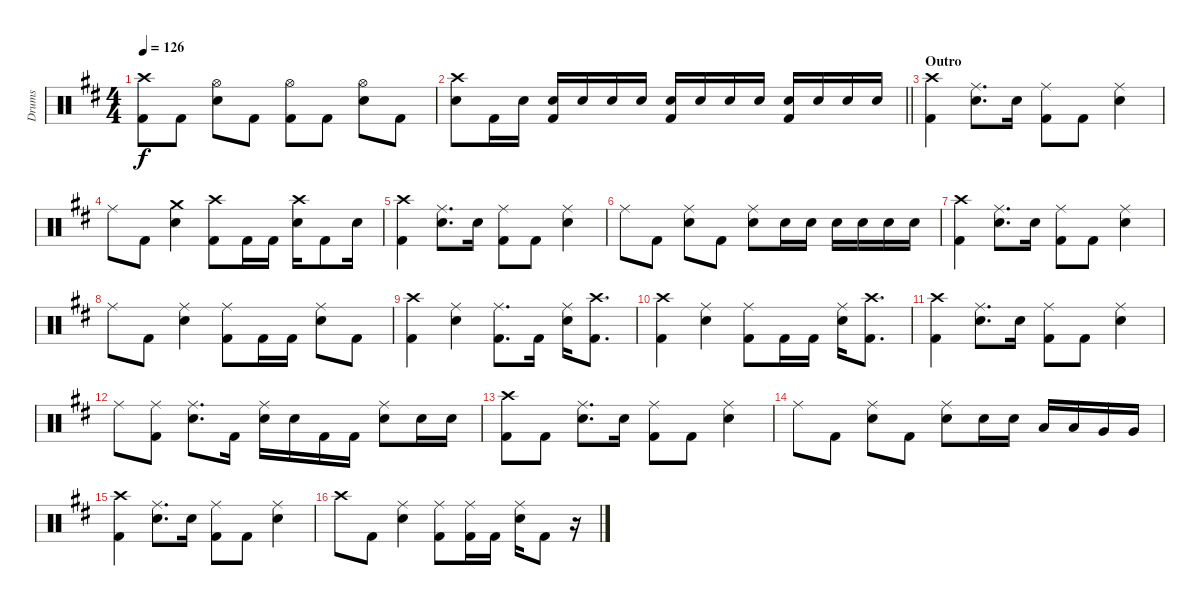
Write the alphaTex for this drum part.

\track ("Drums" "Drums") {instrument percussion}
\staff {score}
\articulation defaults
\ts (4 4)
\tempo 126
\clef neutral
\ks d
("Crash high (hit)" "Kick (hit) 2").8{dy f} "Kick (hit) 2".8 ("Hi-Hat (open)" "Electric Snare (hit)").8 "Kick (hit) 2".8 ("Hi-Hat (open)" "Kick (hit) 2").8 "Kick (hit) 2".8 ("Hi-Hat (open)" "Electric Snare (hit)").8 "Kick (hit) 2".8 |
\barLineRight lightlight
("Crash high (hit)" "Electric Snare (hit)").8 "Kick (hit) 2".16 "Electric Snare (hit)".16 ("Electric Snare (hit)" "Kick (hit) 2").16 "Electric Snare (hit)".16 "Electric Snare (hit)".16 "Electric Snare (hit)".16 ("Electric Snare (hit)" "Kick (hit) 2").16 "Electric Snare (hit)".16 "Electric Snare (hit)".16 "Electric Snare (hit)".16 ("Electric Snare (hit)" "Kick (hit) 2").16 "Electric Snare (hit)".16 "Electric Snare (hit)".16 "Electric Snare (hit)".16 |
\section ("" "Outro")
("Crash high (hit)" "Kick (hit) 2").4 ("Ride (middle)" "Electric Snare (hit)").8{d} "Electric Snare (hit)".16 ("Ride (middle)" "Kick (hit) 2").8 "Kick (hit) 2".8 ("Ride (middle)" "Electric Snare (hit)").4 |
"Ride (middle)".8 "Kick (hit) 2".8 ("Crash medium (hit)" "Electric Snare (hit)").4 ("Crash high (hit)" "Kick (hit) 2").8 "Kick (hit) 2".16 "Kick (hit) 2".16 ("Crash high (hit)" "Electric Snare (hit)").16 "Kick (hit) 2".8 "Electric Snare (hit)".16 |
("Crash high (hit)" "Kick (hit) 2").4 ("Ride (middle)" "Electric Snare (hit)").8{d} "Electric Snare (hit)".16 ("Ride (middle)" "Kick (hit) 2").8 "Kick (hit) 2".8 ("Ride (middle)" "Electric Snare (hit)").4 |
"Ride (middle)".8 "Kick (hit) 2".8 ("Ride (middle)" "Electric Snare (hit)").8 "Kick (hit) 2".8 ("Ride (middle)" "Electric Snare (hit)").8 "Electric Snare (hit)".16 "Electric Snare (hit)".16 "Electric Snare (hit)".16 "Electric Snare (hit)".16 "Electric Snare (hit)".16 "Electric Snare (hit)".16 |
("Crash high (hit)" "Kick (hit) 2").4 ("Ride (middle)" "Electric Snare (hit)").8{d} "Electric Snare (hit)".16 ("Ride (middle)" "Kick (hit) 2").8 "Kick (hit) 2".8 ("Ride (middle)" "Electric Snare (hit)").4 |
"Ride (middle)".8 "Kick (hit) 2".8 ("Ride (middle)" "Electric Snare (hit)").4 ("Ride (middle)" "Kick (hit) 2").8 "Kick (hit) 2".16 "Kick (hit) 2".16 ("Ride (middle)" "Electric Snare (hit)").8 "Kick (hit) 2".8 |
("Crash high (hit)" "Kick (hit) 2").4 ("Ride (middle)" "Electric Snare (hit)").4 ("Ride (middle)" "Kick (hit) 2").8{d} "Kick (hit) 2".16 ("Ride (middle)" "Electric Snare (hit)").16 ("Crash high (hit)" "Kick (hit) 2").8{d} |
("Crash high (hit)" "Kick (hit) 2").4 ("Ride (middle)" "Electric Snare (hit)").4 ("Ride (middle)" "Kick (hit) 2").8 "Kick (hit) 2".16 "Kick (hit) 2".16 ("Ride (middle)" "Electric Snare (hit)").16 ("Crash high (hit)" "Kick (hit) 2").8{d} |
("Crash high (hit)" "Kick (hit) 2").4 ("Ride (middle)" "Electric Snare (hit)").8{d} "Electric Snare (hit)".16 ("Ride (middle)" "Kick (hit) 2").8 "Kick (hit) 2".8 ("Ride (middle)" "Electric Snare (hit)").4 |
"Ride (middle)".8 ("Ride (middle)" "Kick (hit) 2").8 ("Ride (middle)" "Electric Snare (hit)").8{d} "Kick (hit) 2".16 ("Ride (middle)" "Electric Snare (hit)").16 "Electric Snare (hit)".16 "Kick (hit) 2".16 "Kick (hit) 2".16 ("Ride (middle)" "Electric Snare (hit)").8 "Electric Snare (hit)".16 "Electric Snare (hit)".16 |
("Crash high (hit)" "Kick (hit) 2").8 "Kick (hit) 2".8 ("Ride (middle)" "Electric Snare (hit)").8{d} "Electric Snare (hit)".16 ("Ride (middle)" "Kick (hit) 2").8 "Kick (hit) 2".8 ("Ride (middle)" "Electric Snare (hit)").4 |
"Ride (middle)".8 "Kick (hit) 2".8 ("Ride (middle)" "Electric Snare (hit)").8 "Kick (hit) 2".8 ("Ride (middle)" "Electric Snare (hit)").8 "Electric Snare (hit)".16 "Electric Snare (hit)".16 "Low Tom (hit)".16 "Low Tom (hit)".16 "Very Low Tom (hit)".16 "Very Low Tom (hit)".16 |
("Crash high (hit)" "Kick (hit) 2").4 ("Ride (middle)" "Electric Snare (hit)").8{d} "Electric Snare (hit)".16 ("Ride (middle)" "Kick (hit) 2").8 "Kick (hit) 2".8 ("Ride (middle)" "Electric Snare (hit)").4 |
"Crash high (hit)".8 "Kick (hit) 2".8 ("Ride (middle)" "Electric Snare (hit)").4 ("Ride (middle)" "Kick (hit) 2").8 ("Ride (middle)" "Kick (hit) 2").16 "Kick (hit) 2".16 ("Ride (middle)" "Electric Snare (hit)").16 "Kick (hit) 2".8 r.16
